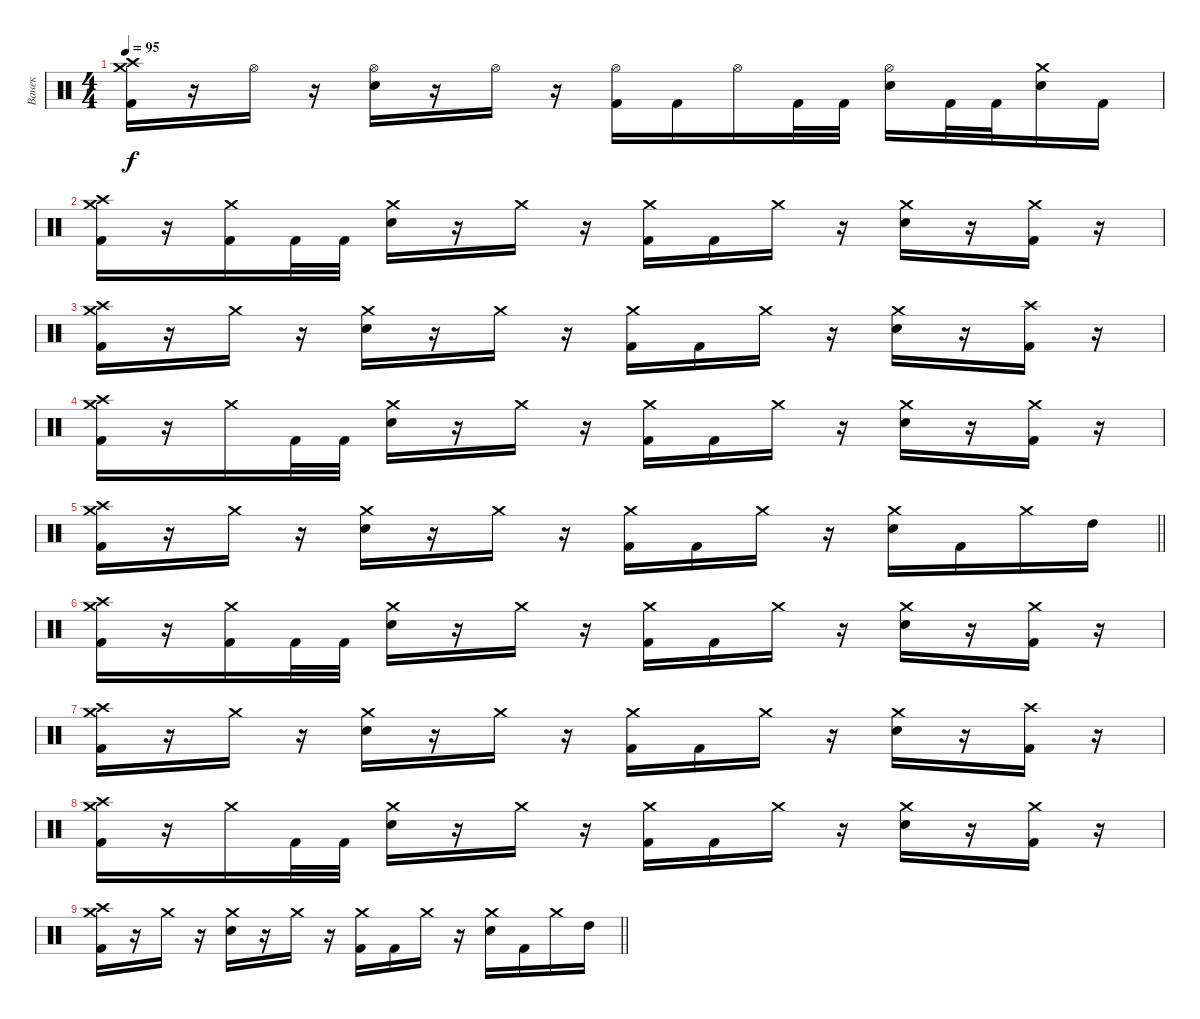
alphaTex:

\track ("Ванек" "Ванек") {instrument percussion}
\staff {score}
\articulation defaults
\ts (4 4)
\tempo 95
\clef neutral
\ks c
("Crash high (hit)" "Crash medium (hit)" "Kick (hit) 2").16{dy f} r.16 "Hi-Hat (open)".16 r.16 ("Hi-Hat (open)" "Snare (hit) 2").16 r.16 "Hi-Hat (open)".16 r.16 ("Hi-Hat (open)" "Kick (hit) 2").16 "Kick (hit) 2".16 "Hi-Hat (open)".16 "Kick (hit) 2".32 "Kick (hit) 2".32 ("Hi-Hat (open)" "Snare (hit) 2").16 "Kick (hit) 2".32 "Kick (hit) 2".32 ("Crash medium (hit)" "Snare (hit) 2").16 "Kick (hit) 2".16 |
("Crash high (hit)" "Crash medium (hit)" "Kick (hit) 2").16 r.16 ("Crash medium (hit)" "Kick (hit) 2").16 "Kick (hit) 2".32 "Kick (hit) 2".32 ("Crash medium (hit)" "Snare (hit) 2").16 r.16 "Crash medium (hit)".16 r.16 ("Crash medium (hit)" "Kick (hit) 2").16 "Kick (hit) 2".16 "Crash medium (hit)".16 r.16 ("Crash medium (hit)" "Snare (hit) 2").16 r.16 ("Crash medium (hit)" "Kick (hit) 2").16 r.16 |
("Crash high (hit)" "Crash medium (hit)" "Kick (hit) 2").16 r.16 "Crash medium (hit)".16 r.16 ("Crash medium (hit)" "Snare (hit) 2").16 r.16 "Crash medium (hit)".16 r.16 ("Crash medium (hit)" "Kick (hit) 2").16 "Kick (hit) 2".16 "Crash medium (hit)".16 r.16 ("Crash medium (hit)" "Snare (hit) 2").16 r.16 ("Crash high (hit)" "Kick (hit) 2").16 r.16 |
("Crash high (hit)" "Crash medium (hit)" "Kick (hit) 2").16 r.16 "Crash medium (hit)".16 "Kick (hit) 2".32 "Kick (hit) 2".32 ("Crash medium (hit)" "Snare (hit) 2").16 r.16 "Crash medium (hit)".16 r.16 ("Crash medium (hit)" "Kick (hit) 2").16 "Kick (hit) 2".16 "Crash medium (hit)".16 r.16 ("Crash medium (hit)" "Snare (hit) 2").16 r.16 ("Crash medium (hit)" "Kick (hit) 2").16 r.16 |
\barLineRight lightlight
("Crash high (hit)" "Crash medium (hit)" "Kick (hit) 2").16 r.16 "Crash medium (hit)".16 r.16 ("Crash medium (hit)" "Snare (hit) 2").16 r.16 "Crash medium (hit)".16 r.16 ("Crash medium (hit)" "Kick (hit) 2").16 "Kick (hit) 2".16 "Crash medium (hit)".16 r.16 ("Crash medium (hit)" "Snare (hit) 2").16 "Kick (hit) 2".16 "Crash medium (hit)".16 "High Tom (hit)".16 |
("Crash high (hit)" "Crash medium (hit)" "Kick (hit) 2").16 r.16 ("Crash medium (hit)" "Kick (hit) 2").16 "Kick (hit) 2".32 "Kick (hit) 2".32 ("Crash medium (hit)" "Snare (hit) 2").16 r.16 "Crash medium (hit)".16 r.16 ("Crash medium (hit)" "Kick (hit) 2").16 "Kick (hit) 2".16 "Crash medium (hit)".16 r.16 ("Crash medium (hit)" "Snare (hit) 2").16 r.16 ("Crash medium (hit)" "Kick (hit) 2").16 r.16 |
("Crash high (hit)" "Crash medium (hit)" "Kick (hit) 2").16 r.16 "Crash medium (hit)".16 r.16 ("Crash medium (hit)" "Snare (hit) 2").16 r.16 "Crash medium (hit)".16 r.16 ("Crash medium (hit)" "Kick (hit) 2").16 "Kick (hit) 2".16 "Crash medium (hit)".16 r.16 ("Crash medium (hit)" "Snare (hit) 2").16 r.16 ("Crash high (hit)" "Kick (hit) 2").16 r.16 |
("Crash high (hit)" "Crash medium (hit)" "Kick (hit) 2").16 r.16 "Crash medium (hit)".16 "Kick (hit) 2".32 "Kick (hit) 2".32 ("Crash medium (hit)" "Snare (hit) 2").16 r.16 "Crash medium (hit)".16 r.16 ("Crash medium (hit)" "Kick (hit) 2").16 "Kick (hit) 2".16 "Crash medium (hit)".16 r.16 ("Crash medium (hit)" "Snare (hit) 2").16 r.16 ("Crash medium (hit)" "Kick (hit) 2").16 r.16 |
\barLineRight lightlight
("Crash high (hit)" "Crash medium (hit)" "Kick (hit) 2").16 r.16 "Crash medium (hit)".16 r.16 ("Crash medium (hit)" "Snare (hit) 2").16 r.16 "Crash medium (hit)".16 r.16 ("Crash medium (hit)" "Kick (hit) 2").16 "Kick (hit) 2".16 "Crash medium (hit)".16 r.16 ("Crash medium (hit)" "Snare (hit) 2").16 "Kick (hit) 2".16 "Crash medium (hit)".16 "High Tom (hit)".16
